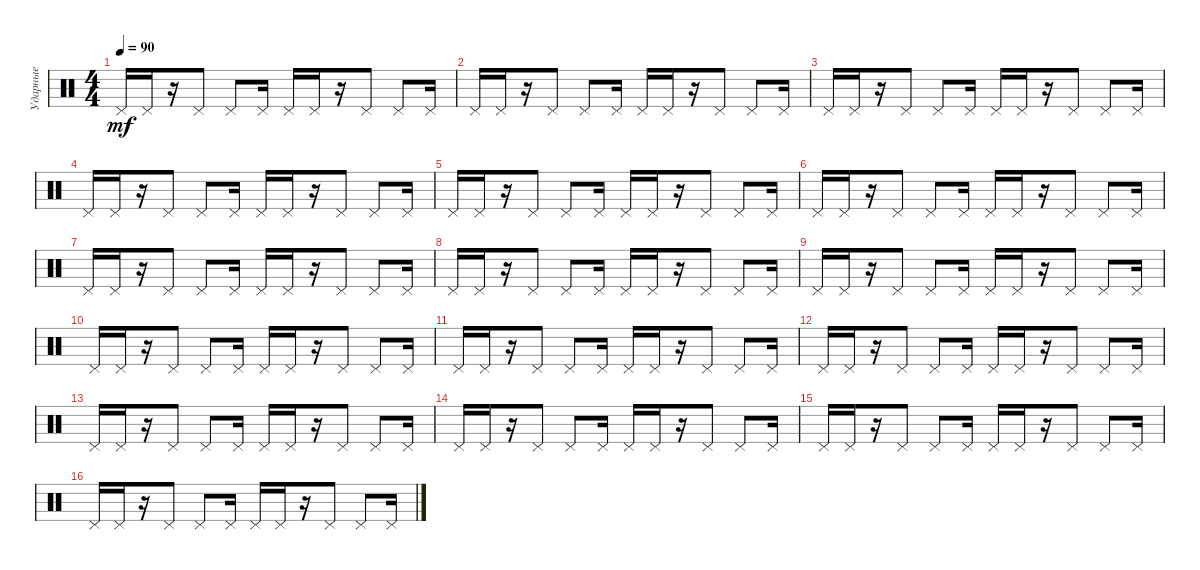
\track ("Ударные" "Ударные") {instrument percussion}
\staff {score}
\articulation defaults
\ts (4 4)
\tempo 90
\clef neutral
\ks c "Pedal Hi-Hat (hit)".16{dy mf} "Pedal Hi-Hat (hit)".16
r.16 "Pedal Hi-Hat (hit)".8 "Pedal Hi-Hat (hit)".8 "Pedal Hi-Hat (hit)".16 "Pedal Hi-Hat (hit)".16 "Pedal Hi-Hat (hit)".16 r.16 "Pedal Hi-Hat (hit)".8 "Pedal Hi-Hat (hit)".8 "Pedal Hi-Hat (hit)".16 |
"Pedal Hi-Hat (hit)".16 "Pedal Hi-Hat (hit)".16 r.16 "Pedal Hi-Hat (hit)".8 "Pedal Hi-Hat (hit)".8 "Pedal Hi-Hat (hit)".16 "Pedal Hi-Hat (hit)".16 "Pedal Hi-Hat (hit)".16 r.16 "Pedal Hi-Hat (hit)".8 "Pedal Hi-Hat (hit)".8 "Pedal Hi-Hat (hit)".16 |
"Pedal Hi-Hat (hit)".16 "Pedal Hi-Hat (hit)".16 r.16 "Pedal Hi-Hat (hit)".8 "Pedal Hi-Hat (hit)".8 "Pedal Hi-Hat (hit)".16 "Pedal Hi-Hat (hit)".16 "Pedal Hi-Hat (hit)".16 r.16 "Pedal Hi-Hat (hit)".8 "Pedal Hi-Hat (hit)".8 "Pedal Hi-Hat (hit)".16 |
"Pedal Hi-Hat (hit)".16 "Pedal Hi-Hat (hit)".16 r.16 "Pedal Hi-Hat (hit)".8 "Pedal Hi-Hat (hit)".8 "Pedal Hi-Hat (hit)".16 "Pedal Hi-Hat (hit)".16 "Pedal Hi-Hat (hit)".16 r.16 "Pedal Hi-Hat (hit)".8 "Pedal Hi-Hat (hit)".8 "Pedal Hi-Hat (hit)".16 |
"Pedal Hi-Hat (hit)".16 "Pedal Hi-Hat (hit)".16 r.16 "Pedal Hi-Hat (hit)".8 "Pedal Hi-Hat (hit)".8 "Pedal Hi-Hat (hit)".16 "Pedal Hi-Hat (hit)".16 "Pedal Hi-Hat (hit)".16 r.16 "Pedal Hi-Hat (hit)".8 "Pedal Hi-Hat (hit)".8 "Pedal Hi-Hat (hit)".16 |
"Pedal Hi-Hat (hit)".16 "Pedal Hi-Hat (hit)".16 r.16 "Pedal Hi-Hat (hit)".8 "Pedal Hi-Hat (hit)".8 "Pedal Hi-Hat (hit)".16 "Pedal Hi-Hat (hit)".16 "Pedal Hi-Hat (hit)".16 r.16 "Pedal Hi-Hat (hit)".8 "Pedal Hi-Hat (hit)".8 "Pedal Hi-Hat (hit)".16 |
"Pedal Hi-Hat (hit)".16 "Pedal Hi-Hat (hit)".16 r.16 "Pedal Hi-Hat (hit)".8 "Pedal Hi-Hat (hit)".8 "Pedal Hi-Hat (hit)".16 "Pedal Hi-Hat (hit)".16 "Pedal Hi-Hat (hit)".16 r.16 "Pedal Hi-Hat (hit)".8 "Pedal Hi-Hat (hit)".8 "Pedal Hi-Hat (hit)".16 |
"Pedal Hi-Hat (hit)".16 "Pedal Hi-Hat (hit)".16 r.16 "Pedal Hi-Hat (hit)".8 "Pedal Hi-Hat (hit)".8 "Pedal Hi-Hat (hit)".16 "Pedal Hi-Hat (hit)".16 "Pedal Hi-Hat (hit)".16 r.16 "Pedal Hi-Hat (hit)".8 "Pedal Hi-Hat (hit)".8 "Pedal Hi-Hat (hit)".16 |
"Pedal Hi-Hat (hit)".16 "Pedal Hi-Hat (hit)".16 r.16 "Pedal Hi-Hat (hit)".8 "Pedal Hi-Hat (hit)".8 "Pedal Hi-Hat (hit)".16 "Pedal Hi-Hat (hit)".16 "Pedal Hi-Hat (hit)".16 r.16 "Pedal Hi-Hat (hit)".8 "Pedal Hi-Hat (hit)".8 "Pedal Hi-Hat (hit)".16 |
"Pedal Hi-Hat (hit)".16 "Pedal Hi-Hat (hit)".16 r.16 "Pedal Hi-Hat (hit)".8 "Pedal Hi-Hat (hit)".8 "Pedal Hi-Hat (hit)".16 "Pedal Hi-Hat (hit)".16 "Pedal Hi-Hat (hit)".16 r.16 "Pedal Hi-Hat (hit)".8 "Pedal Hi-Hat (hit)".8 "Pedal Hi-Hat (hit)".16 |
"Pedal Hi-Hat (hit)".16 "Pedal Hi-Hat (hit)".16 r.16 "Pedal Hi-Hat (hit)".8 "Pedal Hi-Hat (hit)".8 "Pedal Hi-Hat (hit)".16 "Pedal Hi-Hat (hit)".16 "Pedal Hi-Hat (hit)".16 r.16 "Pedal Hi-Hat (hit)".8 "Pedal Hi-Hat (hit)".8 "Pedal Hi-Hat (hit)".16 |
"Pedal Hi-Hat (hit)".16 "Pedal Hi-Hat (hit)".16 r.16 "Pedal Hi-Hat (hit)".8 "Pedal Hi-Hat (hit)".8 "Pedal Hi-Hat (hit)".16 "Pedal Hi-Hat (hit)".16 "Pedal Hi-Hat (hit)".16 r.16 "Pedal Hi-Hat (hit)".8 "Pedal Hi-Hat (hit)".8 "Pedal Hi-Hat (hit)".16 |
"Pedal Hi-Hat (hit)".16 "Pedal Hi-Hat (hit)".16 r.16 "Pedal Hi-Hat (hit)".8 "Pedal Hi-Hat (hit)".8 "Pedal Hi-Hat (hit)".16 "Pedal Hi-Hat (hit)".16 "Pedal Hi-Hat (hit)".16 r.16 "Pedal Hi-Hat (hit)".8 "Pedal Hi-Hat (hit)".8 "Pedal Hi-Hat (hit)".16 |
"Pedal Hi-Hat (hit)".16 "Pedal Hi-Hat (hit)".16 r.16 "Pedal Hi-Hat (hit)".8 "Pedal Hi-Hat (hit)".8 "Pedal Hi-Hat (hit)".16 "Pedal Hi-Hat (hit)".16 "Pedal Hi-Hat (hit)".16 r.16 "Pedal Hi-Hat (hit)".8 "Pedal Hi-Hat (hit)".8 "Pedal Hi-Hat (hit)".16 |
"Pedal Hi-Hat (hit)".16 "Pedal Hi-Hat (hit)".16 r.16 "Pedal Hi-Hat (hit)".8 "Pedal Hi-Hat (hit)".8 "Pedal Hi-Hat (hit)".16 "Pedal Hi-Hat (hit)".16 "Pedal Hi-Hat (hit)".16 r.16 "Pedal Hi-Hat (hit)".8 "Pedal Hi-Hat (hit)".8 "Pedal Hi-Hat (hit)".16 |
"Pedal Hi-Hat (hit)".16 "Pedal Hi-Hat (hit)".16 r.16 "Pedal Hi-Hat (hit)".8 "Pedal Hi-Hat (hit)".8 "Pedal Hi-Hat (hit)".16 "Pedal Hi-Hat (hit)".16 "Pedal Hi-Hat (hit)".16 r.16 "Pedal Hi-Hat (hit)".8 "Pedal Hi-Hat (hit)".8 "Pedal Hi-Hat (hit)".16
